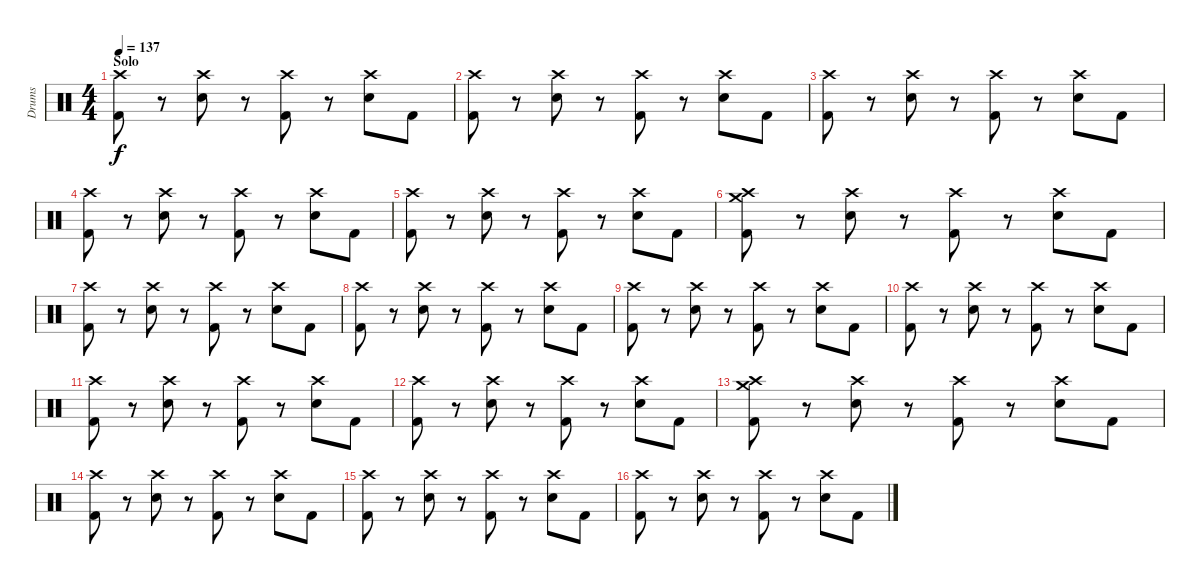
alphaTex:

\track ("Drums" "Drums") {instrument percussion}
\staff {score}
\articulation defaults
\ts (4 4)
\section ("" "Solo")
\tempo 137
\clef neutral
\ks c
("Crash high (hit)" "Kick (hit) 2").8{dy f} r.8 ("Crash high (hit)" "Electric Snare (hit)").8 r.8 ("Crash high (hit)" "Kick (hit) 2").8 r.8 ("Crash high (hit)" "Electric Snare (hit)").8 "Kick (hit) 2".8 |
("Crash high (hit)" "Kick (hit) 2").8 r.8 ("Crash high (hit)" "Electric Snare (hit)").8 r.8 ("Crash high (hit)" "Kick (hit) 2").8 r.8 ("Crash high (hit)" "Electric Snare (hit)").8 "Kick (hit) 2".8 |
("Crash high (hit)" "Kick (hit) 2").8 r.8 ("Crash high (hit)" "Electric Snare (hit)").8 r.8 ("Crash high (hit)" "Kick (hit) 2").8 r.8 ("Crash high (hit)" "Electric Snare (hit)").8 "Kick (hit) 2".8 |
("Crash high (hit)" "Kick (hit) 2").8 r.8 ("Crash high (hit)" "Electric Snare (hit)").8 r.8 ("Crash high (hit)" "Kick (hit) 2").8 r.8 ("Crash high (hit)" "Electric Snare (hit)").8 "Kick (hit) 2".8 |
("Crash high (hit)" "Kick (hit) 2").8 r.8 ("Crash high (hit)" "Electric Snare (hit)").8 r.8 ("Crash high (hit)" "Kick (hit) 2").8 r.8 ("Crash high (hit)" "Electric Snare (hit)").8 "Kick (hit) 2".8 |
("Crash high (hit)" "Kick (hit) 2" "Crash medium (hit)").8 r.8 ("Crash high (hit)" "Electric Snare (hit)").8 r.8 ("Crash high (hit)" "Kick (hit) 2").8 r.8 ("Crash high (hit)" "Electric Snare (hit)").8 "Kick (hit) 2".8 |
("Crash high (hit)" "Kick (hit) 2").8 r.8 ("Crash high (hit)" "Electric Snare (hit)").8 r.8 ("Crash high (hit)" "Kick (hit) 2").8 r.8 ("Crash high (hit)" "Electric Snare (hit)").8 "Kick (hit) 2".8 |
("Crash high (hit)" "Kick (hit) 2").8 r.8 ("Crash high (hit)" "Electric Snare (hit)").8 r.8 ("Crash high (hit)" "Kick (hit) 2").8 r.8 ("Crash high (hit)" "Electric Snare (hit)").8 "Kick (hit) 2".8 |
("Crash high (hit)" "Kick (hit) 2").8 r.8 ("Crash high (hit)" "Electric Snare (hit)").8 r.8 ("Crash high (hit)" "Kick (hit) 2").8 r.8 ("Crash high (hit)" "Electric Snare (hit)").8 "Kick (hit) 2".8 |
("Crash high (hit)" "Kick (hit) 2").8 r.8 ("Crash high (hit)" "Electric Snare (hit)").8 r.8 ("Crash high (hit)" "Kick (hit) 2").8 r.8 ("Crash high (hit)" "Electric Snare (hit)").8 "Kick (hit) 2".8 |
("Crash high (hit)" "Kick (hit) 2").8 r.8 ("Crash high (hit)" "Electric Snare (hit)").8 r.8 ("Crash high (hit)" "Kick (hit) 2").8 r.8 ("Crash high (hit)" "Electric Snare (hit)").8 "Kick (hit) 2".8 |
("Crash high (hit)" "Kick (hit) 2").8 r.8 ("Crash high (hit)" "Electric Snare (hit)").8 r.8 ("Crash high (hit)" "Kick (hit) 2").8 r.8 ("Crash high (hit)" "Electric Snare (hit)").8 "Kick (hit) 2".8 |
("Crash high (hit)" "Kick (hit) 2" "Crash medium (hit)").8 r.8 ("Crash high (hit)" "Electric Snare (hit)").8 r.8 ("Crash high (hit)" "Kick (hit) 2").8 r.8 ("Crash high (hit)" "Electric Snare (hit)").8 "Kick (hit) 2".8 |
("Crash high (hit)" "Kick (hit) 2").8 r.8 ("Crash high (hit)" "Electric Snare (hit)").8 r.8 ("Crash high (hit)" "Kick (hit) 2").8 r.8 ("Crash high (hit)" "Electric Snare (hit)").8 "Kick (hit) 2".8 |
("Crash high (hit)" "Kick (hit) 2").8 r.8 ("Crash high (hit)" "Electric Snare (hit)").8 r.8 ("Crash high (hit)" "Kick (hit) 2").8 r.8 ("Crash high (hit)" "Electric Snare (hit)").8 "Kick (hit) 2".8 |
("Crash high (hit)" "Kick (hit) 2").8 r.8 ("Crash high (hit)" "Electric Snare (hit)").8 r.8 ("Crash high (hit)" "Kick (hit) 2").8 r.8 ("Crash high (hit)" "Electric Snare (hit)").8 "Kick (hit) 2".8
